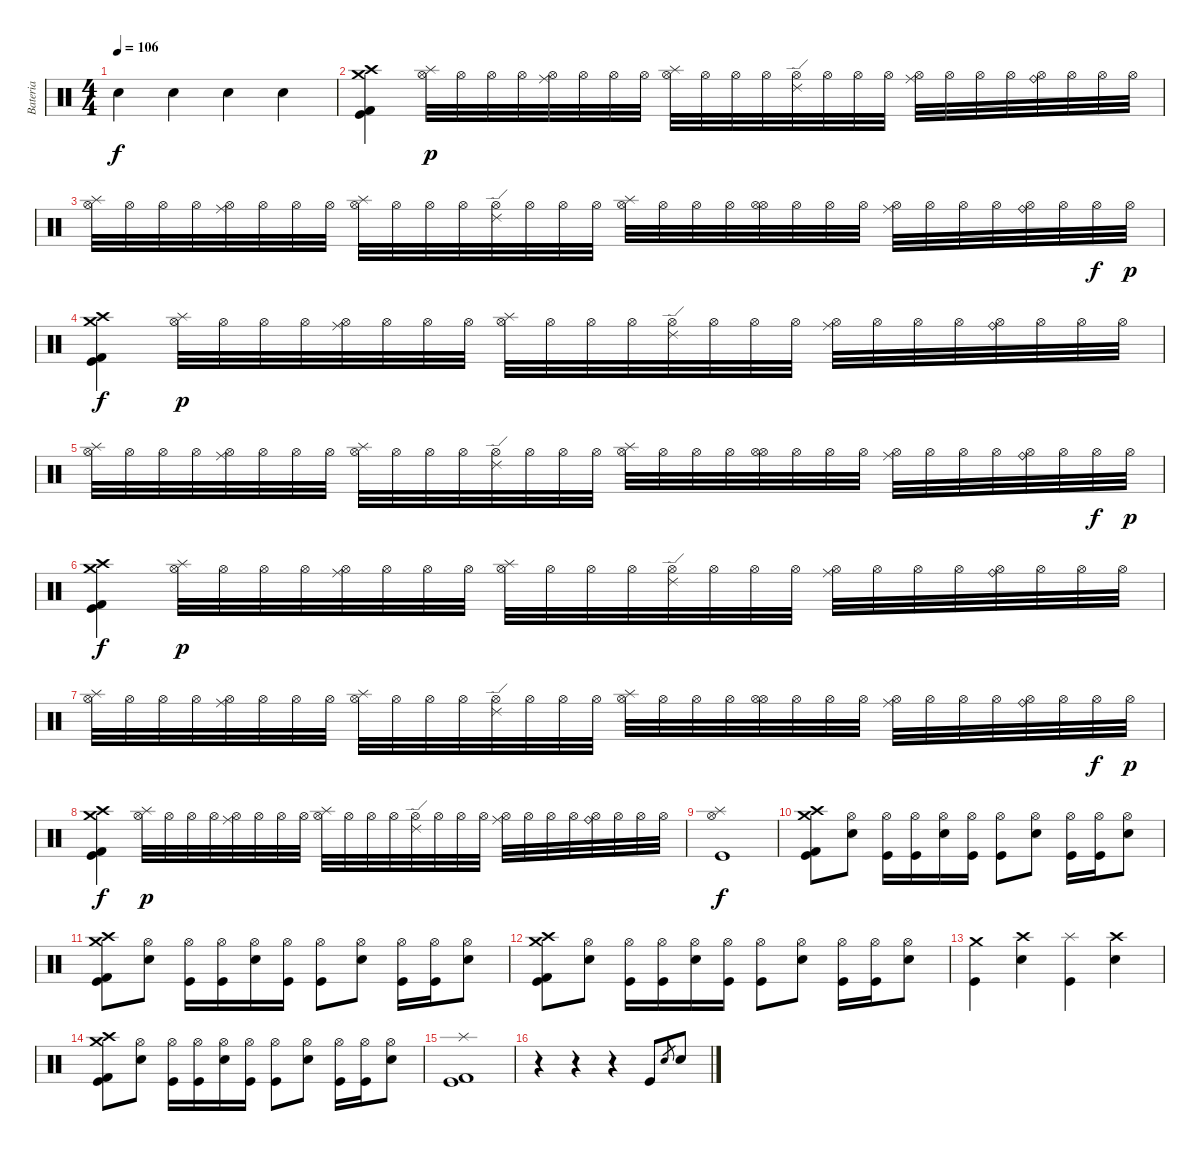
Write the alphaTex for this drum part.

\track ("Bateria" "Bateria") {instrument percussion}
\staff {score}
\articulation defaults
\ts (4 4)
\tempo 106
\clef neutral
\ks c "Electric Snare (hit)".4{dy f} "Electric Snare (hit)".4 "Electric Snare (hit)".4 "Electric Snare (hit)".4
|
("Crash medium (hit)" "Crash high (hit)" "Kick (hit) 2" "Kick (hit)").4 ("Splash (hit)" "Hi-Hat (open)").32{dy p} "Hi-Hat (open)".32 "Hi-Hat (open)".32 "Hi-Hat (open)".32 ("Ride (middle)" "Hi-Hat (open)").32 "Hi-Hat (open)".32 "Hi-Hat (open)".32 "Hi-Hat (open)".32 ("Splash (hit)" "Hi-Hat (open)").32 "Hi-Hat (open)".32 "Hi-Hat (open)".32 "Hi-Hat (open)".32 ("Ride (edge) 2" "Hi-Hat (open)").32 "Hi-Hat (open)".32 "Hi-Hat (open)".32 "Hi-Hat (open)".32 ("Ride (middle)" "Hi-Hat (open)").32 "Hi-Hat (open)".32 "Hi-Hat (open)".32 "Hi-Hat (open)".32 ("Ride (bell)" "Hi-Hat (open)").32 "Hi-Hat (open)".32 "Hi-Hat (open)".32 "Hi-Hat (open)".32 |
("Splash (hit)" "Hi-Hat (open)").32 "Hi-Hat (open)".32 "Hi-Hat (open)".32 "Hi-Hat (open)".32 ("Ride (middle)" "Hi-Hat (open)").32 "Hi-Hat (open)".32 "Hi-Hat (open)".32 "Hi-Hat (open)".32 ("Splash (hit)" "Hi-Hat (open)").32 "Hi-Hat (open)".32 "Hi-Hat (open)".32 "Hi-Hat (open)".32 ("Ride (edge) 2" "Hi-Hat (open)").32 "Hi-Hat (open)".32 "Hi-Hat (open)".32 "Hi-Hat (open)".32 ("Splash (hit)" "Hi-Hat (open)").32 "Hi-Hat (open)".32 "Hi-Hat (open)".32 "Hi-Hat (open)".32 ("Hi-Hat (open)" "Hi-Hat (open)").32 "Hi-Hat (open)".32 "Hi-Hat (open)".32 "Hi-Hat (open)".32 ("Ride (middle)" "Hi-Hat (open)").32 "Hi-Hat (open)".32 "Hi-Hat (open)".32 "Hi-Hat (open)".32 ("Ride (bell)" "Hi-Hat (open)").32 "Hi-Hat (open)".32 "Hi-Hat (open)".32{dy f} "Hi-Hat (open)".32{dy p} |
("Crash medium (hit)" "Crash high (hit)" "Kick (hit) 2" "Kick (hit)").4{dy f} ("Splash (hit)" "Hi-Hat (open)").32{dy p} "Hi-Hat (open)".32 "Hi-Hat (open)".32 "Hi-Hat (open)".32 ("Ride (middle)" "Hi-Hat (open)").32 "Hi-Hat (open)".32 "Hi-Hat (open)".32 "Hi-Hat (open)".32 ("Splash (hit)" "Hi-Hat (open)").32 "Hi-Hat (open)".32 "Hi-Hat (open)".32 "Hi-Hat (open)".32 ("Ride (edge) 2" "Hi-Hat (open)").32 "Hi-Hat (open)".32 "Hi-Hat (open)".32 "Hi-Hat (open)".32 ("Ride (middle)" "Hi-Hat (open)").32 "Hi-Hat (open)".32 "Hi-Hat (open)".32 "Hi-Hat (open)".32 ("Ride (bell)" "Hi-Hat (open)").32 "Hi-Hat (open)".32 "Hi-Hat (open)".32 "Hi-Hat (open)".32 |
("Splash (hit)" "Hi-Hat (open)").32 "Hi-Hat (open)".32 "Hi-Hat (open)".32 "Hi-Hat (open)".32 ("Ride (middle)" "Hi-Hat (open)").32 "Hi-Hat (open)".32 "Hi-Hat (open)".32 "Hi-Hat (open)".32 ("Splash (hit)" "Hi-Hat (open)").32 "Hi-Hat (open)".32 "Hi-Hat (open)".32 "Hi-Hat (open)".32 ("Ride (edge) 2" "Hi-Hat (open)").32 "Hi-Hat (open)".32 "Hi-Hat (open)".32 "Hi-Hat (open)".32 ("Splash (hit)" "Hi-Hat (open)").32 "Hi-Hat (open)".32 "Hi-Hat (open)".32 "Hi-Hat (open)".32 ("Hi-Hat (open)" "Hi-Hat (open)").32 "Hi-Hat (open)".32 "Hi-Hat (open)".32 "Hi-Hat (open)".32 ("Ride (middle)" "Hi-Hat (open)").32 "Hi-Hat (open)".32 "Hi-Hat (open)".32 "Hi-Hat (open)".32 ("Ride (bell)" "Hi-Hat (open)").32 "Hi-Hat (open)".32 "Hi-Hat (open)".32{dy f} "Hi-Hat (open)".32{dy p} |
("Crash medium (hit)" "Crash high (hit)" "Kick (hit) 2" "Kick (hit)").4{dy f} ("Splash (hit)" "Hi-Hat (open)").32{dy p} "Hi-Hat (open)".32 "Hi-Hat (open)".32 "Hi-Hat (open)".32 ("Ride (middle)" "Hi-Hat (open)").32 "Hi-Hat (open)".32 "Hi-Hat (open)".32 "Hi-Hat (open)".32 ("Splash (hit)" "Hi-Hat (open)").32 "Hi-Hat (open)".32 "Hi-Hat (open)".32 "Hi-Hat (open)".32 ("Ride (edge) 2" "Hi-Hat (open)").32 "Hi-Hat (open)".32 "Hi-Hat (open)".32 "Hi-Hat (open)".32 ("Ride (middle)" "Hi-Hat (open)").32 "Hi-Hat (open)".32 "Hi-Hat (open)".32 "Hi-Hat (open)".32 ("Ride (bell)" "Hi-Hat (open)").32 "Hi-Hat (open)".32 "Hi-Hat (open)".32 "Hi-Hat (open)".32 |
("Splash (hit)" "Hi-Hat (open)").32 "Hi-Hat (open)".32 "Hi-Hat (open)".32 "Hi-Hat (open)".32 ("Ride (middle)" "Hi-Hat (open)").32 "Hi-Hat (open)".32 "Hi-Hat (open)".32 "Hi-Hat (open)".32 ("Splash (hit)" "Hi-Hat (open)").32 "Hi-Hat (open)".32 "Hi-Hat (open)".32 "Hi-Hat (open)".32 ("Ride (edge) 2" "Hi-Hat (open)").32 "Hi-Hat (open)".32 "Hi-Hat (open)".32 "Hi-Hat (open)".32 ("Splash (hit)" "Hi-Hat (open)").32 "Hi-Hat (open)".32 "Hi-Hat (open)".32 "Hi-Hat (open)".32 ("Hi-Hat (open)" "Hi-Hat (open)").32 "Hi-Hat (open)".32 "Hi-Hat (open)".32 "Hi-Hat (open)".32 ("Ride (middle)" "Hi-Hat (open)").32 "Hi-Hat (open)".32 "Hi-Hat (open)".32 "Hi-Hat (open)".32 ("Ride (bell)" "Hi-Hat (open)").32 "Hi-Hat (open)".32 "Hi-Hat (open)".32{dy f} "Hi-Hat (open)".32{dy p} |
("Crash medium (hit)" "Crash high (hit)" "Kick (hit) 2" "Kick (hit)").4{dy f} ("Splash (hit)" "Hi-Hat (open)").32{dy p} "Hi-Hat (open)".32 "Hi-Hat (open)".32 "Hi-Hat (open)".32 ("Ride (middle)" "Hi-Hat (open)").32 "Hi-Hat (open)".32 "Hi-Hat (open)".32 "Hi-Hat (open)".32 ("Splash (hit)" "Hi-Hat (open)").32 "Hi-Hat (open)".32 "Hi-Hat (open)".32 "Hi-Hat (open)".32 ("Ride (edge) 2" "Hi-Hat (open)").32 "Hi-Hat (open)".32 "Hi-Hat (open)".32 "Hi-Hat (open)".32 ("Ride (middle)" "Hi-Hat (open)").32 "Hi-Hat (open)".32 "Hi-Hat (open)".32 "Hi-Hat (open)".32 ("Ride (bell)" "Hi-Hat (open)").32 "Hi-Hat (open)".32 "Hi-Hat (open)".32 "Hi-Hat (open)".32 |
("Splash (hit)" "Hi-Hat (open)" "Kick (hit)").1{dy f} |
("Crash medium (hit)" "Crash high (hit)" "Kick (hit) 2" "Kick (hit)").8 ("Hi-Hat (open)" "Electric Snare (hit)").8 ("Hi-Hat (open)" "Kick (hit)").16 ("Hi-Hat (open)" "Kick (hit)").16 ("Hi-Hat (open)" "Electric Snare (hit)").16 ("Hi-Hat (open)" "Kick (hit)").16 ("Hi-Hat (open)" "Kick (hit)").8 ("Hi-Hat (open)" "Electric Snare (hit)").8 ("Hi-Hat (open)" "Kick (hit)").16 ("Hi-Hat (open)" "Kick (hit)").16 ("Hi-Hat (open)" "Electric Snare (hit)").8 |
("Crash medium (hit)" "Crash high (hit)" "Kick (hit) 2" "Kick (hit)").8 ("Hi-Hat (open)" "Electric Snare (hit)").8 ("Hi-Hat (open)" "Kick (hit)").16 ("Hi-Hat (open)" "Kick (hit)").16 ("Hi-Hat (open)" "Electric Snare (hit)").16 ("Hi-Hat (open)" "Kick (hit)").16 ("Hi-Hat (open)" "Kick (hit)").8 ("Hi-Hat (open)" "Electric Snare (hit)").8 ("Hi-Hat (open)" "Kick (hit)").16 ("Hi-Hat (open)" "Kick (hit)").16 ("Hi-Hat (open)" "Electric Snare (hit)").8 |
("Crash medium (hit)" "Crash high (hit)" "Kick (hit) 2" "Kick (hit)").8 ("Hi-Hat (open)" "Electric Snare (hit)").8 ("Hi-Hat (open)" "Kick (hit)").16 ("Hi-Hat (open)" "Kick (hit)").16 ("Hi-Hat (open)" "Electric Snare (hit)").16 ("Hi-Hat (open)" "Kick (hit)").16 ("Hi-Hat (open)" "Kick (hit)").8 ("Hi-Hat (open)" "Electric Snare (hit)").8 ("Hi-Hat (open)" "Kick (hit)").16 ("Hi-Hat (open)" "Kick (hit)").16 ("Hi-Hat (open)" "Electric Snare (hit)").8 |
("Crash medium (hit)" "Kick (hit)").4 ("Crash high (hit)" "Electric Snare (hit)").4 ("Splash (hit)" "Kick (hit)").4 ("Crash high (hit)" "Electric Snare (hit)").4 |
("Crash medium (hit)" "Crash high (hit)" "Kick (hit) 2" "Kick (hit)").8 ("Hi-Hat (open)" "Electric Snare (hit)").8 ("Hi-Hat (open)" "Kick (hit)").16 ("Hi-Hat (open)" "Kick (hit)").16 ("Hi-Hat (open)" "Electric Snare (hit)").16 ("Hi-Hat (open)" "Kick (hit)").16 ("Hi-Hat (open)" "Kick (hit)").8 ("Hi-Hat (open)" "Electric Snare (hit)").8 ("Hi-Hat (open)" "Kick (hit)").16 ("Hi-Hat (open)" "Kick (hit)").16 ("Hi-Hat (open)" "Electric Snare (hit)").8 |
("Splash (hit)" "Kick (hit) 2" "Kick (hit)").1 |
r.4 r.4 r.4 "Kick (hit)".8 "Electric Snare (hit)".8{gr} "Electric Snare (hit)".8
